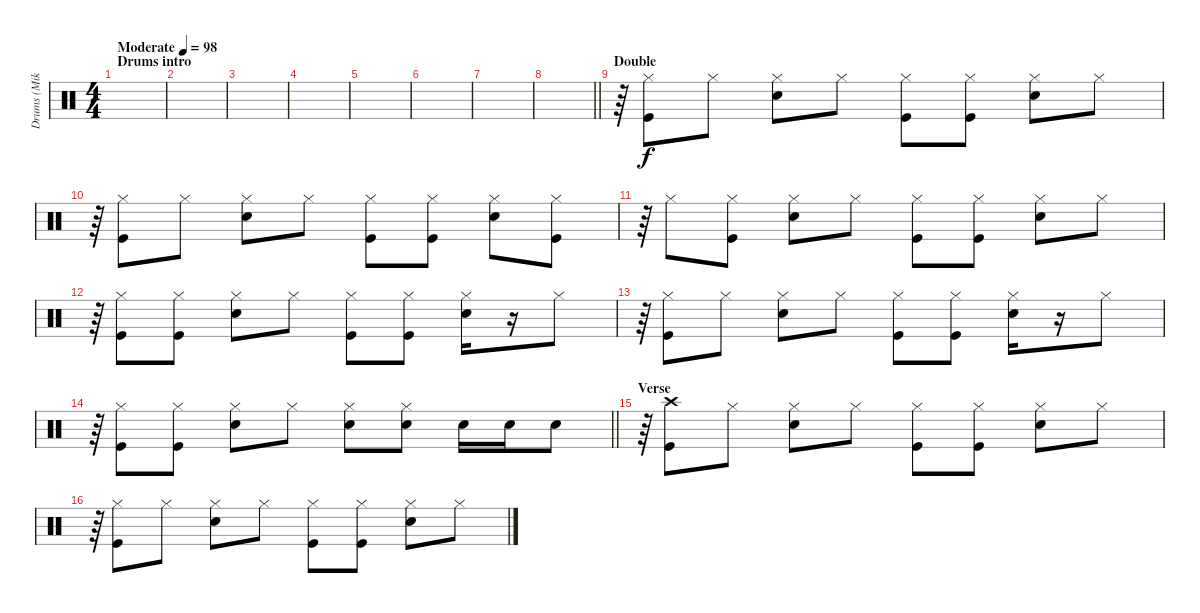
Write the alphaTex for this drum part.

\track ("Drums (Mike Kellie)" "Drums (Mik") {instrument percussion}
\staff {score}
\articulation defaults
\ts (4 4)
\section ("" "Drums intro")
\tempo (98 "Moderate")
\clef neutral
\ks c
|
|
|
|
|
|
|
\barLineRight lightlight
|
\section ("" "Double")
r.64 ("Hi-Hat (closed)" "Kick (hit)").8 "Hi-Hat (closed)".8 ("Hi-Hat (closed)" "Electric Snare (hit)").8 "Hi-Hat (closed)".8 ("Hi-Hat (closed)" "Kick (hit)").8 ("Hi-Hat (closed)" "Kick (hit)").8 ("Hi-Hat (closed)" "Electric Snare (hit)").8 "Hi-Hat (closed)".8 |
r.64 ("Hi-Hat (closed)" "Kick (hit)").8 "Hi-Hat (closed)".8 ("Hi-Hat (closed)" "Electric Snare (hit)").8 "Hi-Hat (closed)".8 ("Hi-Hat (closed)" "Kick (hit)").8 ("Hi-Hat (closed)" "Kick (hit)").8 ("Hi-Hat (closed)" "Electric Snare (hit)").8 ("Hi-Hat (closed)" "Kick (hit)").8 |
r.64 "Hi-Hat (closed)".8 ("Hi-Hat (closed)" "Kick (hit)").8 ("Hi-Hat (closed)" "Electric Snare (hit)").8 "Hi-Hat (closed)".8 ("Hi-Hat (closed)" "Kick (hit)").8 ("Hi-Hat (closed)" "Kick (hit)").8 ("Hi-Hat (closed)" "Electric Snare (hit)").8 "Hi-Hat (closed)".8 |
r.64 ("Hi-Hat (closed)" "Kick (hit)").8 ("Hi-Hat (closed)" "Kick (hit)").8 ("Hi-Hat (closed)" "Electric Snare (hit)").8 "Hi-Hat (closed)".8 ("Hi-Hat (closed)" "Kick (hit)").8 ("Hi-Hat (closed)" "Kick (hit)").8 ("Hi-Hat (closed)" "Electric Snare (hit)").16 r.16 "Hi-Hat (closed)".8 |
r.64 ("Hi-Hat (closed)" "Kick (hit)").8 "Hi-Hat (closed)".8 ("Hi-Hat (closed)" "Electric Snare (hit)").8 "Hi-Hat (closed)".8 ("Hi-Hat (closed)" "Kick (hit)").8 ("Hi-Hat (closed)" "Kick (hit)").8 ("Hi-Hat (closed)" "Electric Snare (hit)").16 r.16 "Hi-Hat (closed)".8 |
\barLineRight lightlight
r.64 ("Hi-Hat (closed)" "Kick (hit)").8 ("Hi-Hat (closed)" "Kick (hit)").8 ("Hi-Hat (closed)" "Electric Snare (hit)").8 "Hi-Hat (closed)".8 ("Hi-Hat (closed)" "Electric Snare (hit)").8 ("Hi-Hat (closed)" "Electric Snare (hit)").8 "Electric Snare (hit)".16 "Electric Snare (hit)".16 "Electric Snare (hit)".8 |
\section ("" "Verse")
r.64 ("Crash high (hit)" "Kick (hit)").8 "Hi-Hat (closed)".8 ("Hi-Hat (closed)" "Electric Snare (hit)").8 "Hi-Hat (closed)".8 ("Hi-Hat (closed)" "Kick (hit)").8 ("Hi-Hat (closed)" "Kick (hit)").8 ("Hi-Hat (closed)" "Electric Snare (hit)").8 "Hi-Hat (closed)".8 |
r.64 ("Hi-Hat (closed)" "Kick (hit)").8 "Hi-Hat (closed)".8 ("Hi-Hat (closed)" "Electric Snare (hit)").8 "Hi-Hat (closed)".8 ("Hi-Hat (closed)" "Kick (hit)").8 ("Hi-Hat (closed)" "Kick (hit)").8 ("Hi-Hat (closed)" "Electric Snare (hit)").8 "Hi-Hat (closed)".8
